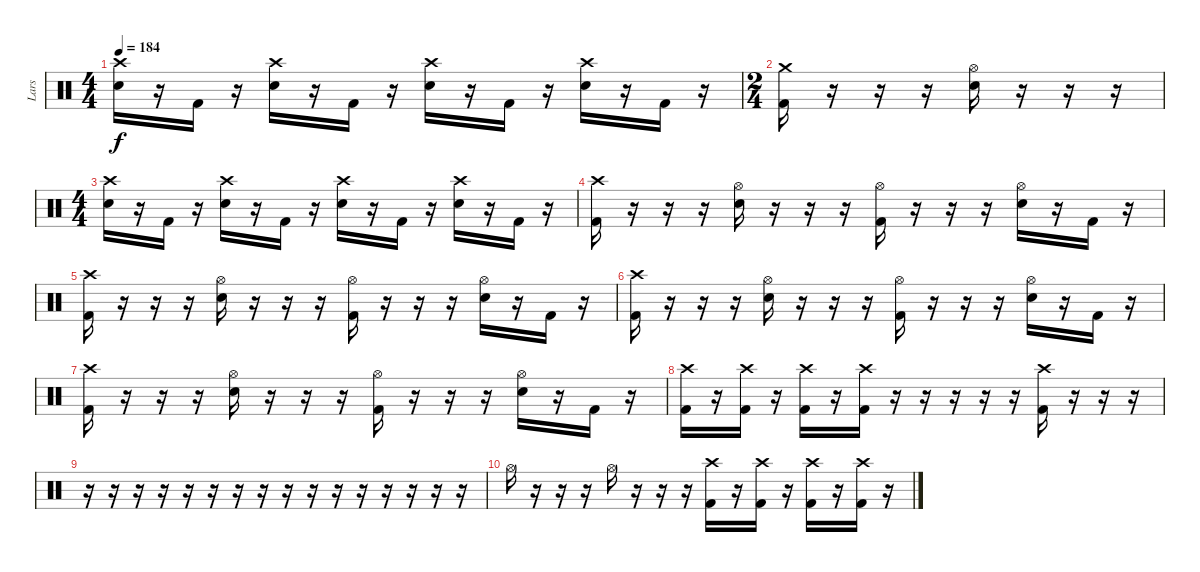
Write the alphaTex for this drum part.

\track ("Lars" "Lars") {instrument percussion}
\staff {score}
\articulation defaults
\ts (4 4)
\tempo 184
\clef neutral
\ks c
("Crash high (hit)" "Electric Snare (hit)").16{dy f} r.16 "Kick (hit) 2".16 r.16 ("Crash high (hit)" "Electric Snare (hit)").16 r.16 "Kick (hit) 2".16 r.16 ("Crash high (hit)" "Electric Snare (hit)").16 r.16 "Kick (hit) 2".16 r.16 ("Crash high (hit)" "Electric Snare (hit)").16 r.16 "Kick (hit) 2".16 r.16 |
\ts (2 4)
("Crash medium (hit)" "Kick (hit) 2").16 r.16 r.16 r.16 ("Electric Snare (hit)" "Hi-Hat (open)").16 r.16 r.16 r.16 |
\ts (4 4)
("Crash high (hit)" "Electric Snare (hit)").16 r.16 "Kick (hit) 2".16 r.16 ("Crash high (hit)" "Electric Snare (hit)").16 r.16 "Kick (hit) 2".16 r.16 ("Crash high (hit)" "Electric Snare (hit)").16 r.16 "Kick (hit) 2".16 r.16 ("Crash high (hit)" "Electric Snare (hit)").16 r.16 "Kick (hit) 2".16 r.16 |
("Crash high (hit)" "Kick (hit) 2").16 r.16 r.16 r.16 ("Electric Snare (hit)" "Hi-Hat (open)").16 r.16 r.16 r.16 ("Hi-Hat (open)" "Kick (hit) 2").16 r.16 r.16 r.16 ("Electric Snare (hit)" "Hi-Hat (open)").16 r.16 "Kick (hit) 2".16 r.16 |
("Crash high (hit)" "Kick (hit) 2").16 r.16 r.16 r.16 ("Electric Snare (hit)" "Hi-Hat (open)").16 r.16 r.16 r.16 ("Hi-Hat (open)" "Kick (hit) 2").16 r.16 r.16 r.16 ("Electric Snare (hit)" "Hi-Hat (open)").16 r.16 "Kick (hit) 2".16 r.16 |
("Crash high (hit)" "Kick (hit) 2").16 r.16 r.16 r.16 ("Electric Snare (hit)" "Hi-Hat (open)").16 r.16 r.16 r.16 ("Hi-Hat (open)" "Kick (hit) 2").16 r.16 r.16 r.16 ("Electric Snare (hit)" "Hi-Hat (open)").16 r.16 "Kick (hit) 2".16 r.16 |
("Crash high (hit)" "Kick (hit) 2").16 r.16 r.16 r.16 ("Electric Snare (hit)" "Hi-Hat (open)").16 r.16 r.16 r.16 ("Hi-Hat (open)" "Kick (hit) 2").16 r.16 r.16 r.16 ("Electric Snare (hit)" "Hi-Hat (open)").16 r.16 "Kick (hit) 2".16 r.16 |
("Crash high (hit)" "Kick (hit) 2").16 r.16 ("Crash high (hit)" "Kick (hit) 2").16 r.16 ("Crash high (hit)" "Kick (hit) 2").16 r.16 ("Crash high (hit)" "Kick (hit) 2").16 r.16 r.16 r.16 r.16 r.16 ("Crash high (hit)" "Kick (hit) 2").16 r.16 r.16 r.16 |
r.16 r.16 r.16 r.16 r.16 r.16 r.16 r.16 r.16 r.16 r.16 r.16 r.16 r.16 r.16 r.16 |
"Hi-Hat (open)".16 r.16 r.16 r.16 "Hi-Hat (open)".16 r.16 r.16 r.16 ("Crash high (hit)" "Kick (hit) 2").16 r.16 ("Crash high (hit)" "Kick (hit) 2").16 r.16 ("Crash high (hit)" "Kick (hit) 2").16 r.16 ("Crash high (hit)" "Kick (hit) 2").16 r.16
